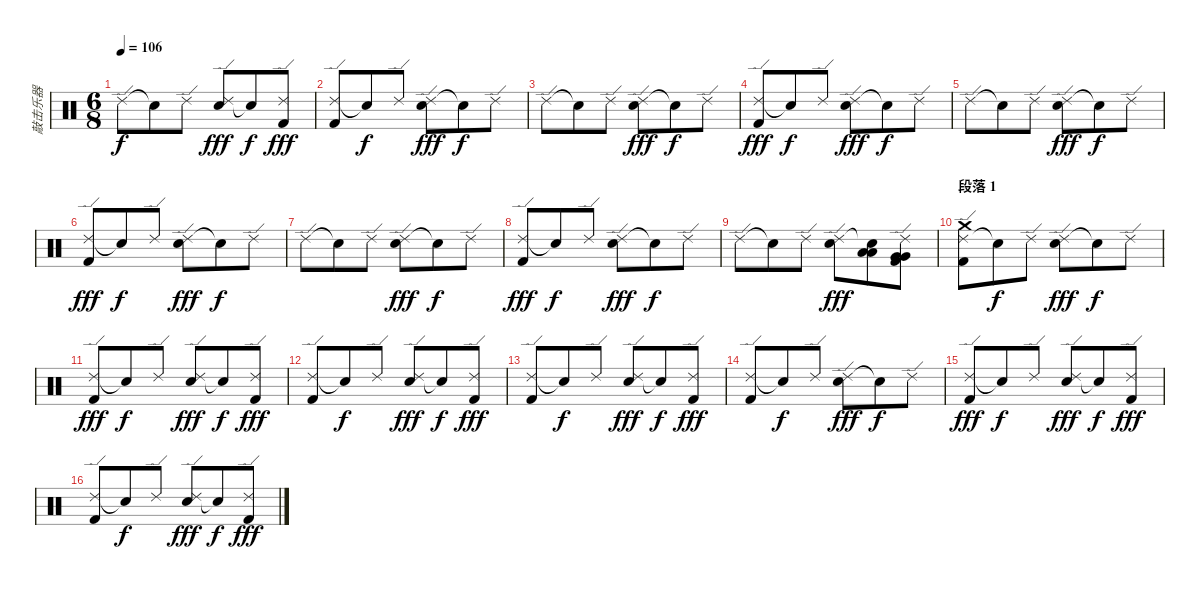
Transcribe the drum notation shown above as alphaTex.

\track ("敲击乐器" "敲击乐器") {instrument percussion}
\staff {score}
\articulation defaults
\ts (6 8)
\tempo 106
\clef neutral
\ks c "Ride (edge) 2".8{dy f} "Snare (hit)"{t}.8 "Ride (edge) 2".8
("Ride (edge) 2" "Snare (hit) 2").8{dy fff} "Snare (hit)"{t}.8{dy f} ("Ride (edge) 2" "Kick (hit) 2").8{dy fff} |
("Ride (edge) 2" "Kick (hit) 2").8 "Snare (hit)"{t}.8{dy f} "Ride (edge) 2".8 ("Ride (edge) 2" "Snare (hit) 2").8{dy fff} "Snare (hit)"{t}.8{dy f} "Ride (edge) 2".8 |
"Ride (edge) 2".8 "Snare (hit)"{t}.8 "Ride (edge) 2".8 ("Ride (edge) 2" "Snare (hit) 2").8{dy fff} "Snare (hit)"{t}.8{dy f} "Ride (edge) 2".8 |
("Ride (edge) 2" "Kick (hit) 2").8{dy fff} "Snare (hit)"{t}.8{dy f} "Ride (edge) 2".8 ("Ride (edge) 2" "Snare (hit) 2").8{dy fff} "Snare (hit)"{t}.8{dy f} "Ride (edge) 2".8 |
"Ride (edge) 2".8 "Snare (hit)"{t}.8 "Ride (edge) 2".8 ("Ride (edge) 2" "Snare (hit) 2").8{dy fff} "Snare (hit)"{t}.8{dy f} "Ride (edge) 2".8 |
("Ride (edge) 2" "Kick (hit) 2").8{dy fff} "Snare (hit)"{t}.8{dy f} "Ride (edge) 2".8 ("Ride (edge) 2" "Snare (hit) 2").8{dy fff} "Snare (hit)"{t}.8{dy f} "Ride (edge) 2".8 |
"Ride (edge) 2".8 "Snare (hit)"{t}.8 "Ride (edge) 2".8 ("Ride (edge) 2" "Snare (hit) 2").8{dy fff} "Snare (hit)"{t}.8{dy f} "Ride (edge) 2".8 |
("Ride (edge) 2" "Kick (hit) 2").8{dy fff} "Snare (hit)"{t}.8{dy f} "Ride (edge) 2".8 ("Ride (edge) 2" "Snare (hit) 2").8{dy fff} "Snare (hit)"{t}.8{dy f} "Ride (edge) 2".8 |
"Ride (edge) 2".8 "Snare (hit)"{t}.8 "Ride (edge) 2".8 ("Ride (edge) 2" "Snare (hit) 2").8{dy fff} ("Snare (hit)"{t} "Low Tom (hit)" "Low Tom (hit)").8 ("Ride (edge) 2" "Very Low Tom (hit)" "Very Low Tom (hit)" "Kick (hit) 2").8 |
\section ("" "段落 1")
("Ride (edge) 2" "Crash medium (hit)" "Kick (hit) 2").8 "Snare (hit)"{t}.8{dy f} "Ride (edge) 2".8 ("Ride (edge) 2" "Snare (hit) 2").8{dy fff} "Snare (hit)"{t}.8{dy f} "Ride (edge) 2".8 |
("Ride (edge) 2" "Kick (hit) 2").8{dy fff} "Snare (hit)"{t}.8{dy f} "Ride (edge) 2".8 ("Ride (edge) 2" "Snare (hit) 2").8{dy fff} "Snare (hit)"{t}.8{dy f} ("Ride (edge) 2" "Kick (hit) 2").8{dy fff} |
("Ride (edge) 2" "Kick (hit) 2").8 "Snare (hit)"{t}.8{dy f} "Ride (edge) 2".8 ("Ride (edge) 2" "Snare (hit) 2").8{dy fff} "Snare (hit)"{t}.8{dy f} ("Ride (edge) 2" "Kick (hit) 2").8{dy fff} |
("Ride (edge) 2" "Kick (hit) 2").8 "Snare (hit)"{t}.8{dy f} "Ride (edge) 2".8 ("Ride (edge) 2" "Snare (hit) 2").8{dy fff} "Snare (hit)"{t}.8{dy f} ("Ride (edge) 2" "Kick (hit) 2").8{dy fff} |
("Ride (edge) 2" "Kick (hit) 2").8 "Snare (hit)"{t}.8{dy f} "Ride (edge) 2".8 ("Ride (edge) 2" "Snare (hit) 2").8{dy fff} "Snare (hit)"{t}.8{dy f} "Ride (edge) 2".8 |
("Ride (edge) 2" "Kick (hit) 2").8{dy fff} "Snare (hit)"{t}.8{dy f} "Ride (edge) 2".8 ("Ride (edge) 2" "Snare (hit) 2").8{dy fff} "Snare (hit)"{t}.8{dy f} ("Ride (edge) 2" "Kick (hit) 2").8{dy fff} |
("Ride (edge) 2" "Kick (hit) 2").8 "Snare (hit)"{t}.8{dy f} "Ride (edge) 2".8 ("Ride (edge) 2" "Snare (hit) 2").8{dy fff} "Snare (hit)"{t}.8{dy f} ("Ride (edge) 2" "Kick (hit) 2").8{dy fff}
